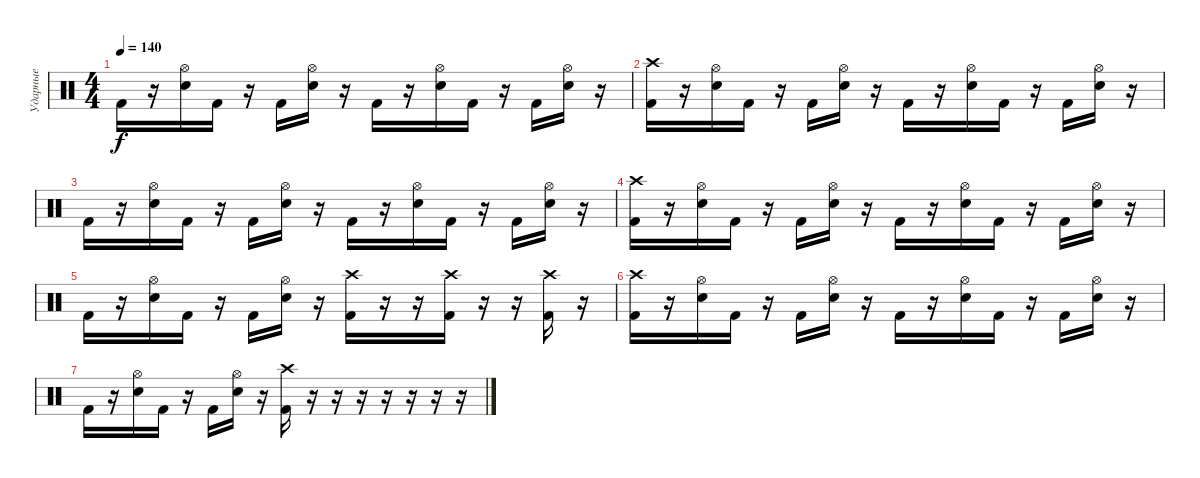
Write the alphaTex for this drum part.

\track ("Ударные" "Ударные") {instrument percussion}
\staff {score}
\articulation defaults
\ts (4 4)
\tempo 140
\clef neutral
\ks c "Kick (hit) 2".16{dy f}
r.16 ("Electric Snare (hit)" "Hi-Hat (open)").16 "Kick (hit) 2".16 r.16 "Kick (hit) 2".16 ("Electric Snare (hit)" "Hi-Hat (open)").16 r.16 "Kick (hit) 2".16 r.16 ("Electric Snare (hit)" "Hi-Hat (open)").16 "Kick (hit) 2".16 r.16 "Kick (hit) 2".16 ("Electric Snare (hit)" "Hi-Hat (open)").16 r.16 |
("Kick (hit) 2" "Crash high (hit)").16 r.16 ("Electric Snare (hit)" "Hi-Hat (open)").16 "Kick (hit) 2".16 r.16 "Kick (hit) 2".16 ("Electric Snare (hit)" "Hi-Hat (open)").16 r.16 "Kick (hit) 2".16 r.16 ("Electric Snare (hit)" "Hi-Hat (open)").16 "Kick (hit) 2".16 r.16 "Kick (hit) 2".16 ("Electric Snare (hit)" "Hi-Hat (open)").16 r.16 |
"Kick (hit) 2".16 r.16 ("Electric Snare (hit)" "Hi-Hat (open)").16 "Kick (hit) 2".16 r.16 "Kick (hit) 2".16 ("Electric Snare (hit)" "Hi-Hat (open)").16 r.16 "Kick (hit) 2".16 r.16 ("Electric Snare (hit)" "Hi-Hat (open)").16 "Kick (hit) 2".16 r.16 "Kick (hit) 2".16 ("Electric Snare (hit)" "Hi-Hat (open)").16 r.16 |
("Kick (hit) 2" "Crash high (hit)").16 r.16 ("Electric Snare (hit)" "Hi-Hat (open)").16 "Kick (hit) 2".16 r.16 "Kick (hit) 2".16 ("Electric Snare (hit)" "Hi-Hat (open)").16 r.16 "Kick (hit) 2".16 r.16 ("Electric Snare (hit)" "Hi-Hat (open)").16 "Kick (hit) 2".16 r.16 "Kick (hit) 2".16 ("Electric Snare (hit)" "Hi-Hat (open)").16 r.16 |
"Kick (hit) 2".16 r.16 ("Electric Snare (hit)" "Hi-Hat (open)").16 "Kick (hit) 2".16 r.16 "Kick (hit) 2".16 ("Electric Snare (hit)" "Hi-Hat (open)").16 r.16 ("Kick (hit) 2" "Crash high (hit)").16 r.16 r.16 ("Kick (hit) 2" "Crash high (hit)").16 r.16 r.16 ("Kick (hit) 2" "Crash high (hit)").16 r.16 |
("Kick (hit) 2" "Crash high (hit)").16 r.16 ("Electric Snare (hit)" "Hi-Hat (open)").16 "Kick (hit) 2".16 r.16 "Kick (hit) 2".16 ("Electric Snare (hit)" "Hi-Hat (open)").16 r.16 "Kick (hit) 2".16 r.16 ("Electric Snare (hit)" "Hi-Hat (open)").16 "Kick (hit) 2".16 r.16 "Kick (hit) 2".16 ("Electric Snare (hit)" "Hi-Hat (open)").16 r.16 |
"Kick (hit) 2".16 r.16 ("Electric Snare (hit)" "Hi-Hat (open)").16 "Kick (hit) 2".16 r.16 "Kick (hit) 2".16 ("Electric Snare (hit)" "Hi-Hat (open)").16 r.16 ("Kick (hit) 2" "Crash high (hit)").16 r.16 r.16 r.16 r.16 r.16 r.16 r.16
